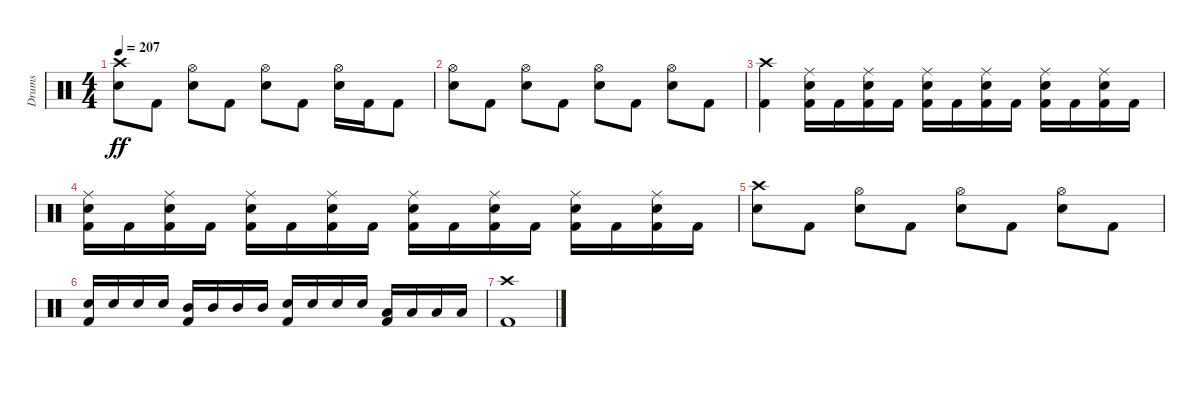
\track ("Drums" "Drums") {instrument percussion}
\staff {score}
\articulation defaults
\ts (4 4)
\tempo 207
\clef neutral
\ks c
("Crash high (hit)" "Snare (hit) 2").8{dy ff} "Kick (hit) 2".8 ("Hi-Hat (open)" "Snare (hit) 2").8 "Kick (hit) 2".8 ("Hi-Hat (open)" "Snare (hit) 2").8 "Kick (hit) 2".8 ("Hi-Hat (open)" "Snare (hit) 2").16 "Kick (hit) 2".16 "Kick (hit) 2".8 |
("Hi-Hat (open)" "Snare (hit) 2").8 "Kick (hit) 2".8 ("Hi-Hat (open)" "Snare (hit) 2").8 "Kick (hit) 2".8 ("Hi-Hat (open)" "Snare (hit) 2").8 "Kick (hit) 2".8 ("Hi-Hat (open)" "Snare (hit) 2").8 "Kick (hit) 2".8 |
("Crash high (hit)" "Kick (hit) 2").4 ("Ride (middle)" "Snare (hit) 2" "Kick (hit) 2").16 "Kick (hit) 2".16 ("Ride (middle)" "Snare (hit) 2" "Kick (hit) 2").16 "Kick (hit) 2".16 ("Ride (middle)" "Snare (hit) 2" "Kick (hit) 2").16 "Kick (hit) 2".16 ("Ride (middle)" "Snare (hit) 2" "Kick (hit) 2").16 "Kick (hit) 2".16 ("Ride (middle)" "Snare (hit) 2" "Kick (hit) 2").16 "Kick (hit) 2".16 ("Ride (middle)" "Snare (hit) 2" "Kick (hit) 2").16 "Kick (hit) 2".16 |
("Ride (middle)" "Snare (hit) 2" "Kick (hit) 2").16 "Kick (hit) 2".16 ("Ride (middle)" "Snare (hit) 2" "Kick (hit) 2").16 "Kick (hit) 2".16 ("Ride (middle)" "Snare (hit) 2" "Kick (hit) 2").16 "Kick (hit) 2".16 ("Ride (middle)" "Snare (hit) 2" "Kick (hit) 2").16 "Kick (hit) 2".16 ("Ride (middle)" "Snare (hit) 2" "Kick (hit) 2").16 "Kick (hit) 2".16 ("Ride (middle)" "Snare (hit) 2" "Kick (hit) 2").16 "Kick (hit) 2".16 ("Ride (middle)" "Snare (hit) 2" "Kick (hit) 2").16 "Kick (hit) 2".16 ("Ride (middle)" "Snare (hit) 2" "Kick (hit) 2").16 "Kick (hit) 2".16 |
("Crash high (hit)" "Snare (hit) 2").8 "Kick (hit) 2".8 ("Hi-Hat (open)" "Snare (hit) 2").8 "Kick (hit) 2".8 ("Hi-Hat (open)" "Snare (hit) 2").8 "Kick (hit) 2".8 ("Hi-Hat (open)" "Snare (hit) 2").8 "Kick (hit) 2".8 |
("Snare (hit) 2" "Kick (hit) 2").16 "Snare (hit) 2".16 "Snare (hit) 2".16 "Snare (hit) 2".16 ("Mid Tom (hit)" "Kick (hit) 2").16 "Mid Tom (hit)".16 "Mid Tom (hit)".16 "Mid Tom (hit)".16 ("Snare (hit) 2" "Kick (hit) 2").16 "Snare (hit) 2".16 "Snare (hit) 2".16 "Snare (hit) 2".16 ("Low Tom (hit)" "Kick (hit) 2").16 "Low Tom (hit)".16 "Low Tom (hit)".16 "Low Tom (hit)".16 |
("Crash high (hit)" "Kick (hit) 2").1
